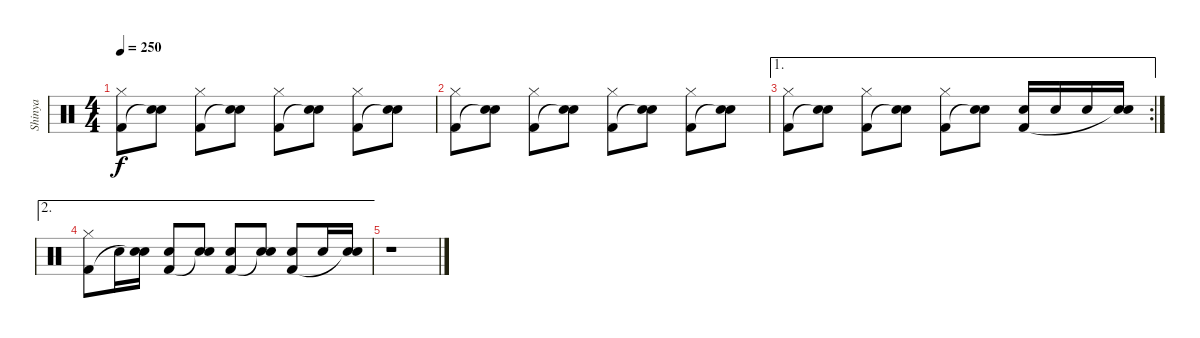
\track ("Shinya" "Shinya") {instrument percussion}
\staff {score}
\articulation defaults
\ts (4 4)
\tempo 250
\clef neutral
\ks c
("Hi-Hat (closed)" "Kick (hit) 2").8{dy f} ("Electric Snare (hit)" "Snare (hit)"{t}).8 ("Hi-Hat (closed)" "Kick (hit) 2").8 ("Electric Snare (hit)" "Snare (hit)"{t}).8 ("Hi-Hat (closed)" "Kick (hit) 2").8 ("Electric Snare (hit)" "Snare (hit)"{t}).8 ("Hi-Hat (closed)" "Kick (hit) 2").8 ("Electric Snare (hit)" "Snare (hit)"{t}).8 |
("Hi-Hat (closed)" "Kick (hit) 2").8 ("Electric Snare (hit)" "Snare (hit)"{t}).8 ("Hi-Hat (closed)" "Kick (hit) 2").8 ("Electric Snare (hit)" "Snare (hit)"{t}).8 ("Hi-Hat (closed)" "Kick (hit) 2").8 ("Electric Snare (hit)" "Snare (hit)"{t}).8 ("Hi-Hat (closed)" "Kick (hit) 2").8 ("Electric Snare (hit)" "Snare (hit)"{t}).8 |
\ae 1
\rc 2
("Hi-Hat (closed)" "Kick (hit) 2").8 ("Electric Snare (hit)" "Snare (hit)"{t}).8 ("Hi-Hat (closed)" "Kick (hit) 2").8 ("Electric Snare (hit)" "Snare (hit)"{t}).8 ("Hi-Hat (closed)" "Kick (hit) 2").8 ("Electric Snare (hit)" "Snare (hit)"{t}).8 ("Electric Snare (hit)" "Kick (hit) 2").16 "Electric Snare (hit)".16 "Electric Snare (hit)".16 ("Electric Snare (hit)" "Snare (hit)"{t}).16 |
\ae 2
("Hi-Hat (closed)" "Kick (hit) 2").8 "Electric Snare (hit)".16 ("Electric Snare (hit)" "Snare (hit)"{t}).16 ("Electric Snare (hit)" "Kick (hit) 2").8 ("Electric Snare (hit)" "Snare (hit)"{t}).8 ("Electric Snare (hit)" "Kick (hit) 2").8 ("Electric Snare (hit)" "Snare (hit)"{t}).8 ("Electric Snare (hit)" "Kick (hit) 2").8 "Electric Snare (hit)".16 ("Electric Snare (hit)" "Snare (hit)"{t}).16 |
r.1
